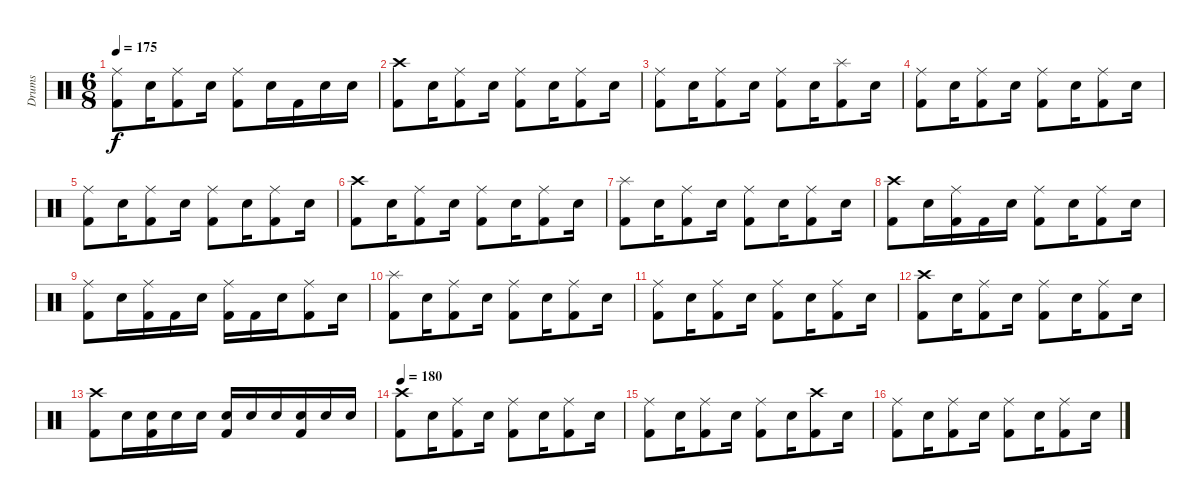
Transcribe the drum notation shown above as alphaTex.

\track ("Drums" "Drums") {instrument percussion}
\staff {score}
\articulation defaults
\ts (6 8)
\tempo 175
\clef neutral
\ks c
("Ride (middle)" "Kick (hit) 2").8{dy f} "Snare (hit) 2".16 ("Ride (middle)" "Kick (hit) 2").8 "Snare (hit) 2".16 ("Ride (middle)" "Kick (hit) 2").8 "Snare (hit) 2".16 "Kick (hit) 2".16 "Snare (hit) 2".16 "Snare (hit) 2".16 |
("Crash high (hit)" "Kick (hit) 2").8 "Snare (hit) 2".16 ("Ride (middle)" "Kick (hit) 2").8 "Snare (hit) 2".16 ("Ride (middle)" "Kick (hit) 2").8 "Snare (hit) 2".16 ("Ride (middle)" "Kick (hit) 2").8 "Snare (hit) 2".16 |
("Ride (middle)" "Kick (hit) 2").8 "Snare (hit) 2".16 ("Ride (middle)" "Kick (hit) 2").8 "Snare (hit) 2".16 ("Ride (middle)" "Kick (hit) 2").8 "Snare (hit) 2".16 ("Splash (hit)" "Kick (hit) 2").8 "Snare (hit) 2".16 |
("Ride (middle)" "Kick (hit) 2").8 "Snare (hit) 2".16 ("Ride (middle)" "Kick (hit) 2").8 "Snare (hit) 2".16 ("Ride (middle)" "Kick (hit) 2").8 "Snare (hit) 2".16 ("Ride (middle)" "Kick (hit) 2").8 "Snare (hit) 2".16 |
("Ride (middle)" "Kick (hit) 2").8 "Snare (hit) 2".16 ("Ride (middle)" "Kick (hit) 2").8 "Snare (hit) 2".16 ("Ride (middle)" "Kick (hit) 2").8 "Snare (hit) 2".16 ("Ride (middle)" "Kick (hit) 2").8 "Snare (hit) 2".16 |
("Crash high (hit)" "Kick (hit) 2").8 "Snare (hit) 2".16 ("Ride (middle)" "Kick (hit) 2").8 "Snare (hit) 2".16 ("Ride (middle)" "Kick (hit) 2").8 "Snare (hit) 2".16 ("Ride (middle)" "Kick (hit) 2").8 "Snare (hit) 2".16 |
("Splash (hit)" "Kick (hit) 2").8 "Snare (hit) 2".16 ("Ride (middle)" "Kick (hit) 2").8 "Snare (hit) 2".16 ("Ride (middle)" "Kick (hit) 2").8 "Snare (hit) 2".16 ("Ride (middle)" "Kick (hit) 2").8 "Snare (hit) 2".16 |
("Crash high (hit)" "Kick (hit) 2").8 "Snare (hit) 2".16 ("Ride (middle)" "Kick (hit) 2").16 "Kick (hit) 2".16 "Snare (hit) 2".16 ("Ride (middle)" "Kick (hit) 2").8 "Snare (hit) 2".16 ("Ride (middle)" "Kick (hit) 2").8 "Snare (hit) 2".16 |
("Ride (middle)" "Kick (hit) 2").8 "Snare (hit) 2".16 ("Ride (middle)" "Kick (hit) 2").16 "Kick (hit) 2".16 "Snare (hit) 2".16 ("Ride (middle)" "Kick (hit) 2").16 "Kick (hit) 2".16 "Snare (hit) 2".16 ("Ride (middle)" "Kick (hit) 2").8 "Snare (hit) 2".16 |
("Splash (hit)" "Kick (hit) 2").8 "Snare (hit) 2".16 ("Ride (middle)" "Kick (hit) 2").8 "Snare (hit) 2".16 ("Ride (middle)" "Kick (hit) 2").8 "Snare (hit) 2".16 ("Ride (middle)" "Kick (hit) 2").8 "Snare (hit) 2".16 |
("Ride (middle)" "Kick (hit) 2").8 "Snare (hit) 2".16 ("Ride (middle)" "Kick (hit) 2").8 "Snare (hit) 2".16 ("Ride (middle)" "Kick (hit) 2").8 "Snare (hit) 2".16 ("Ride (middle)" "Kick (hit) 2").8 "Snare (hit) 2".16 |
("Crash high (hit)" "Kick (hit) 2").8 "Snare (hit) 2".16 ("Ride (middle)" "Kick (hit) 2").8 "Snare (hit) 2".16 ("Ride (middle)" "Kick (hit) 2").8 "Snare (hit) 2".16 ("Ride (middle)" "Kick (hit) 2").8 "Snare (hit) 2".16 |
("Crash high (hit)" "Kick (hit) 2").8 "Snare (hit) 2".16 ("Snare (hit) 2" "Kick (hit) 2").16 "Snare (hit) 2".16 "Snare (hit) 2".16 ("Snare (hit) 2" "Kick (hit) 2").16 "Snare (hit) 2".16 "Snare (hit) 2".16 ("Snare (hit) 2" "Kick (hit) 2").16 "Snare (hit) 2".16 "Snare (hit) 2".16 |
\tempo 180
("Crash high (hit)" "Kick (hit) 2").8 "Snare (hit) 2".16 ("Ride (middle)" "Kick (hit) 2").8 "Snare (hit) 2".16 ("Ride (middle)" "Kick (hit) 2").8 "Snare (hit) 2".16 ("Ride (middle)" "Kick (hit) 2").8 "Snare (hit) 2".16 |
("Ride (middle)" "Kick (hit) 2").8 "Snare (hit) 2".16 ("Ride (middle)" "Kick (hit) 2").8 "Snare (hit) 2".16 ("Ride (middle)" "Kick (hit) 2").8 "Snare (hit) 2".16 ("Crash high (hit)" "Kick (hit) 2").8 "Snare (hit) 2".16 |
("Ride (middle)" "Kick (hit) 2").8 "Snare (hit) 2".16 ("Ride (middle)" "Kick (hit) 2").8 "Snare (hit) 2".16 ("Ride (middle)" "Kick (hit) 2").8 "Snare (hit) 2".16 ("Ride (middle)" "Kick (hit) 2").8 "Snare (hit) 2".16
